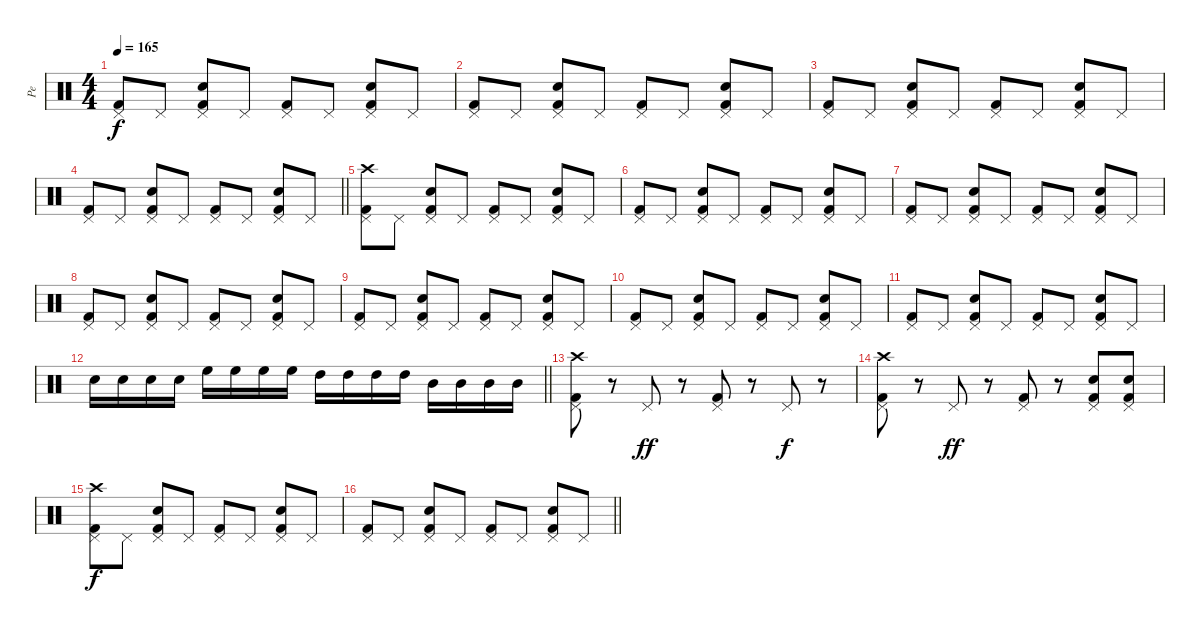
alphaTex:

\track ("Pe" "Pe") {instrument percussion}
\staff {score}
\articulation defaults
\ts (4 4)
\tempo 165
\clef neutral
\ks c
("Pedal Hi-Hat (hit)" "Kick (hit) 2").8{dy f} "Pedal Hi-Hat (hit)".8 ("Electric Snare (hit)" "Pedal Hi-Hat (hit)" "Kick (hit) 2").8 "Pedal Hi-Hat (hit)".8 ("Pedal Hi-Hat (hit)" "Kick (hit) 2").8 "Pedal Hi-Hat (hit)".8 ("Electric Snare (hit)" "Pedal Hi-Hat (hit)" "Kick (hit) 2").8 "Pedal Hi-Hat (hit)".8 |
("Pedal Hi-Hat (hit)" "Kick (hit) 2").8 "Pedal Hi-Hat (hit)".8 ("Electric Snare (hit)" "Pedal Hi-Hat (hit)" "Kick (hit) 2").8 "Pedal Hi-Hat (hit)".8 ("Pedal Hi-Hat (hit)" "Kick (hit) 2").8 "Pedal Hi-Hat (hit)".8 ("Electric Snare (hit)" "Pedal Hi-Hat (hit)" "Kick (hit) 2").8 "Pedal Hi-Hat (hit)".8 |
("Pedal Hi-Hat (hit)" "Kick (hit) 2").8 "Pedal Hi-Hat (hit)".8 ("Electric Snare (hit)" "Pedal Hi-Hat (hit)" "Kick (hit) 2").8 "Pedal Hi-Hat (hit)".8 ("Pedal Hi-Hat (hit)" "Kick (hit) 2").8 "Pedal Hi-Hat (hit)".8 ("Electric Snare (hit)" "Pedal Hi-Hat (hit)" "Kick (hit) 2").8 "Pedal Hi-Hat (hit)".8 |
\barLineRight lightlight
("Pedal Hi-Hat (hit)" "Kick (hit) 2").8 "Pedal Hi-Hat (hit)".8 ("Electric Snare (hit)" "Pedal Hi-Hat (hit)" "Kick (hit) 2").8 "Pedal Hi-Hat (hit)".8 ("Pedal Hi-Hat (hit)" "Kick (hit) 2").8 "Pedal Hi-Hat (hit)".8 ("Electric Snare (hit)" "Pedal Hi-Hat (hit)" "Kick (hit) 2").8 "Pedal Hi-Hat (hit)".8 |
("Pedal Hi-Hat (hit)" "Kick (hit) 2" "Crash high (hit)").8 "Pedal Hi-Hat (hit)".8 ("Electric Snare (hit)" "Pedal Hi-Hat (hit)" "Kick (hit) 2").8 "Pedal Hi-Hat (hit)".8 ("Pedal Hi-Hat (hit)" "Kick (hit) 2").8 "Pedal Hi-Hat (hit)".8 ("Electric Snare (hit)" "Pedal Hi-Hat (hit)" "Kick (hit) 2").8 "Pedal Hi-Hat (hit)".8 |
("Pedal Hi-Hat (hit)" "Kick (hit) 2").8 "Pedal Hi-Hat (hit)".8 ("Electric Snare (hit)" "Pedal Hi-Hat (hit)" "Kick (hit) 2").8 "Pedal Hi-Hat (hit)".8 ("Pedal Hi-Hat (hit)" "Kick (hit) 2").8 "Pedal Hi-Hat (hit)".8 ("Electric Snare (hit)" "Pedal Hi-Hat (hit)" "Kick (hit) 2").8 "Pedal Hi-Hat (hit)".8 |
("Pedal Hi-Hat (hit)" "Kick (hit) 2").8 "Pedal Hi-Hat (hit)".8 ("Electric Snare (hit)" "Pedal Hi-Hat (hit)" "Kick (hit) 2").8 "Pedal Hi-Hat (hit)".8 ("Pedal Hi-Hat (hit)" "Kick (hit) 2").8 "Pedal Hi-Hat (hit)".8 ("Electric Snare (hit)" "Pedal Hi-Hat (hit)" "Kick (hit) 2").8 "Pedal Hi-Hat (hit)".8 |
("Pedal Hi-Hat (hit)" "Kick (hit) 2").8 "Pedal Hi-Hat (hit)".8 ("Electric Snare (hit)" "Pedal Hi-Hat (hit)" "Kick (hit) 2").8 "Pedal Hi-Hat (hit)".8 ("Pedal Hi-Hat (hit)" "Kick (hit) 2").8 "Pedal Hi-Hat (hit)".8 ("Electric Snare (hit)" "Pedal Hi-Hat (hit)" "Kick (hit) 2").8 "Pedal Hi-Hat (hit)".8 |
("Pedal Hi-Hat (hit)" "Kick (hit) 2").8 "Pedal Hi-Hat (hit)".8 ("Electric Snare (hit)" "Pedal Hi-Hat (hit)" "Kick (hit) 2").8 "Pedal Hi-Hat (hit)".8 ("Pedal Hi-Hat (hit)" "Kick (hit) 2").8 "Pedal Hi-Hat (hit)".8 ("Electric Snare (hit)" "Pedal Hi-Hat (hit)" "Kick (hit) 2").8 "Pedal Hi-Hat (hit)".8 |
("Pedal Hi-Hat (hit)" "Kick (hit) 2").8 "Pedal Hi-Hat (hit)".8 ("Electric Snare (hit)" "Pedal Hi-Hat (hit)" "Kick (hit) 2").8 "Pedal Hi-Hat (hit)".8 ("Pedal Hi-Hat (hit)" "Kick (hit) 2").8 "Pedal Hi-Hat (hit)".8 ("Electric Snare (hit)" "Pedal Hi-Hat (hit)" "Kick (hit) 2").8 "Pedal Hi-Hat (hit)".8 |
("Pedal Hi-Hat (hit)" "Kick (hit) 2").8 "Pedal Hi-Hat (hit)".8 ("Electric Snare (hit)" "Pedal Hi-Hat (hit)" "Kick (hit) 2").8 "Pedal Hi-Hat (hit)".8 ("Pedal Hi-Hat (hit)" "Kick (hit) 2").8 "Pedal Hi-Hat (hit)".8 ("Electric Snare (hit)" "Pedal Hi-Hat (hit)" "Kick (hit) 2").8 "Pedal Hi-Hat (hit)".8 |
\barLineRight lightlight "Electric Snare (hit)".16 "Electric Snare (hit)".16 "Electric Snare (hit)".16 "Electric Snare (hit)".16 "High Floor Tom (hit)".16 "High Floor Tom (hit)".16 "High Floor Tom (hit)".16 "High Floor Tom (hit)".16 "High Tom (hit)".16 "High Tom (hit)".16 "High Tom (hit)".16 "High Tom (hit)".16 "Mid Tom (hit)".16 "Mid Tom (hit)".16 "Mid Tom (hit)".16 "Mid Tom (hit)".16
|
("Pedal Hi-Hat (hit)" "Kick (hit) 2" "Crash high (hit)").8 r.8 "Pedal Hi-Hat (hit)".8{dy ff} r.8 ("Pedal Hi-Hat (hit)" "Kick (hit) 2").8 r.8 "Pedal Hi-Hat (hit)".8{dy f} r.8 |
("Pedal Hi-Hat (hit)" "Kick (hit) 2" "Crash high (hit)").8 r.8 "Pedal Hi-Hat (hit)".8{dy ff} r.8 ("Pedal Hi-Hat (hit)" "Kick (hit) 2").8 r.8 ("Pedal Hi-Hat (hit)" "Electric Snare (hit)" "Kick (hit) 2").8 ("Pedal Hi-Hat (hit)" "Kick (hit) 2" "Electric Snare (hit)").8 |
("Pedal Hi-Hat (hit)" "Kick (hit) 2" "Crash high (hit)").8{dy f} "Pedal Hi-Hat (hit)".8 ("Electric Snare (hit)" "Pedal Hi-Hat (hit)" "Kick (hit) 2").8 "Pedal Hi-Hat (hit)".8 ("Pedal Hi-Hat (hit)" "Kick (hit) 2").8 "Pedal Hi-Hat (hit)".8 ("Electric Snare (hit)" "Pedal Hi-Hat (hit)" "Kick (hit) 2").8 "Pedal Hi-Hat (hit)".8 |
\barLineRight lightlight
("Pedal Hi-Hat (hit)" "Kick (hit) 2").8 "Pedal Hi-Hat (hit)".8 ("Electric Snare (hit)" "Pedal Hi-Hat (hit)" "Kick (hit) 2").8 "Pedal Hi-Hat (hit)".8 ("Pedal Hi-Hat (hit)" "Kick (hit) 2").8 "Pedal Hi-Hat (hit)".8 ("Electric Snare (hit)" "Pedal Hi-Hat (hit)" "Kick (hit) 2").8 "Pedal Hi-Hat (hit)".8
